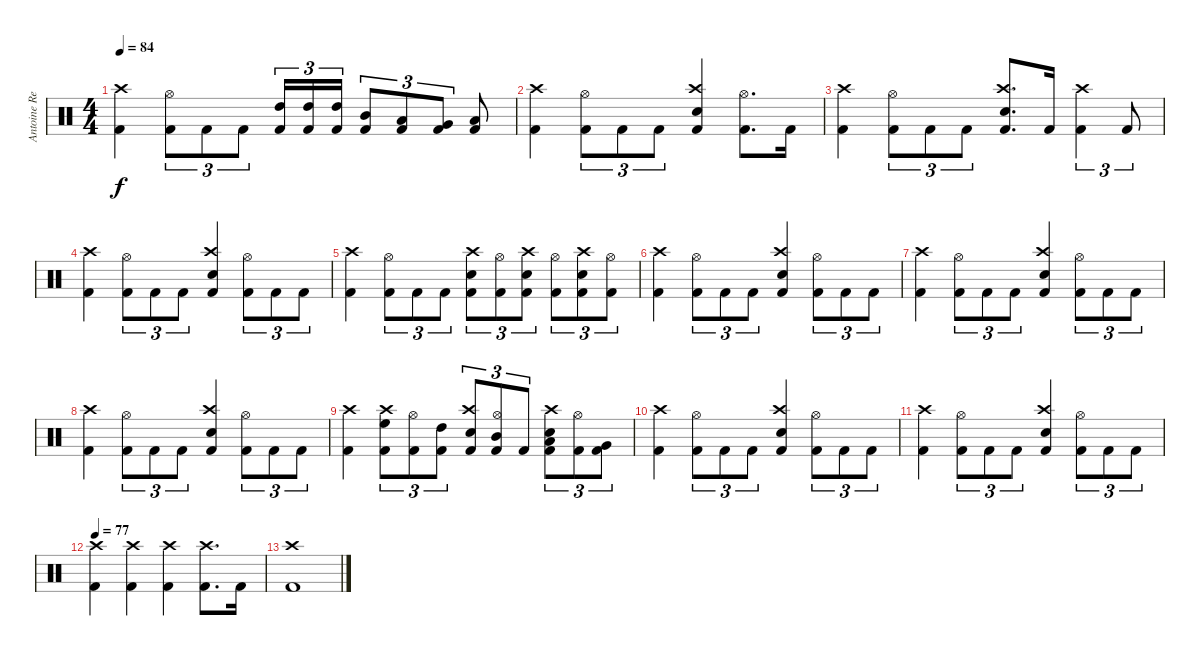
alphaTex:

\track ("Antoine Reuben" "Antoine Re") {instrument percussion}
\staff {score}
\articulation defaults
\ts (4 4)
\tempo 84
\clef neutral
\ks c
("Kick (hit) 2" "Crash high (hit)").4{dy f} ("Kick (hit) 2" "Hi-Hat (open)").8{tu (3 2)} "Kick (hit) 2".8{tu (3 2)} "Kick (hit) 2".8{tu (3 2)} ("Kick (hit) 2" "High Tom (hit)").16{tu (3 2)} ("Kick (hit) 2" "High Tom (hit)").16{tu (3 2)} ("Kick (hit) 2" "High Tom (hit)").16{tu (3 2)} ("Kick (hit) 2" "Mid Tom (hit)").8{tu (3 2)} ("Kick (hit) 2" "Low Tom (hit)").8{tu (3 2)} ("Kick (hit) 2" "Very Low Tom (hit)").8{tu (3 2)} ("Kick (hit) 2" "Low Floor Tom (hit)").8 |
("Kick (hit) 2" "Crash high (hit)").4 ("Kick (hit) 2" "Hi-Hat (open)").8{tu (3 2)} "Kick (hit) 2".8{tu (3 2)} "Kick (hit) 2".8{tu (3 2)} ("Kick (hit) 2" "Crash high (hit)" "Snare (hit) 2").4 ("Kick (hit) 2" "Hi-Hat (open)").8{d} "Kick (hit) 2".16 |
("Kick (hit) 2" "Crash high (hit)").4 ("Kick (hit) 2" "Hi-Hat (open)").8{tu (3 2)} "Kick (hit) 2".8{tu (3 2)} "Kick (hit) 2".8{tu (3 2)} ("Kick (hit) 2" "Crash high (hit)" "Snare (hit) 2").8{d} "Kick (hit) 2".16 ("Kick (hit) 2" "Crash high (hit)").4{tu (3 2)} "Kick (hit) 2".8{tu (3 2)} |
("Kick (hit) 2" "Crash high (hit)").4 ("Kick (hit) 2" "Hi-Hat (open)").8{tu (3 2)} "Kick (hit) 2".8{tu (3 2)} "Kick (hit) 2".8{tu (3 2)} ("Kick (hit) 2" "Crash high (hit)" "Snare (hit) 2").4 ("Kick (hit) 2" "Hi-Hat (open)").8{tu (3 2)} "Kick (hit) 2".8{tu (3 2)} "Kick (hit) 2".8{tu (3 2)} |
("Kick (hit) 2" "Crash high (hit)").4 ("Kick (hit) 2" "Hi-Hat (open)").8{tu (3 2)} "Kick (hit) 2".8{tu (3 2)} "Kick (hit) 2".8{tu (3 2)} ("Kick (hit) 2" "Crash high (hit)" "Snare (hit) 2").8{tu (3 2)} ("Kick (hit) 2" "Hi-Hat (open)").8{tu (3 2)} ("Kick (hit) 2" "Crash high (hit)" "Snare (hit) 2").8{tu (3 2)} ("Kick (hit) 2" "Hi-Hat (open)").8{tu (3 2)} ("Kick (hit) 2" "Crash high (hit)" "Snare (hit) 2").8{tu (3 2)} ("Kick (hit) 2" "Hi-Hat (open)").8{tu (3 2)} |
("Kick (hit) 2" "Crash high (hit)").4 ("Kick (hit) 2" "Hi-Hat (open)").8{tu (3 2)} "Kick (hit) 2".8{tu (3 2)} "Kick (hit) 2".8{tu (3 2)} ("Kick (hit) 2" "Crash high (hit)" "Snare (hit) 2").4 ("Kick (hit) 2" "Hi-Hat (open)").8{tu (3 2)} "Kick (hit) 2".8{tu (3 2)} "Kick (hit) 2".8{tu (3 2)} |
("Kick (hit) 2" "Crash high (hit)").4 ("Kick (hit) 2" "Hi-Hat (open)").8{tu (3 2)} "Kick (hit) 2".8{tu (3 2)} "Kick (hit) 2".8{tu (3 2)} ("Kick (hit) 2" "Crash high (hit)" "Snare (hit) 2").4 ("Kick (hit) 2" "Hi-Hat (open)").8{tu (3 2)} "Kick (hit) 2".8{tu (3 2)} "Kick (hit) 2".8{tu (3 2)} |
("Kick (hit) 2" "Crash high (hit)").4 ("Kick (hit) 2" "Hi-Hat (open)").8{tu (3 2)} "Kick (hit) 2".8{tu (3 2)} "Kick (hit) 2".8{tu (3 2)} ("Kick (hit) 2" "Crash high (hit)" "Snare (hit) 2").4 ("Kick (hit) 2" "Hi-Hat (open)").8{tu (3 2)} "Kick (hit) 2".8{tu (3 2)} "Kick (hit) 2".8{tu (3 2)} |
("Kick (hit) 2" "Crash high (hit)").4 ("Kick (hit) 2" "Crash high (hit)" "High Floor Tom (hit)").8{tu (3 2)} ("Kick (hit) 2" "Hi-Hat (open)").8{tu (3 2)} ("Kick (hit) 2" "High Tom (hit)").8{tu (3 2)} ("Kick (hit) 2" "Crash high (hit)" "Snare (hit) 2").8{tu (3 2)} ("Kick (hit) 2" "Mid Tom (hit)" "Hi-Hat (open)").8{tu (3 2)} "Kick (hit) 2".8{tu (3 2)} ("Kick (hit) 2" "Crash high (hit)" "Snare (hit) 2" "Low Tom (hit)").8{tu (3 2)} ("Kick (hit) 2" "Hi-Hat (open)").8{tu (3 2)} ("Kick (hit) 2" "Very Low Tom (hit)").8{tu (3 2)} |
("Kick (hit) 2" "Crash high (hit)").4 ("Kick (hit) 2" "Hi-Hat (open)").8{tu (3 2)} "Kick (hit) 2".8{tu (3 2)} "Kick (hit) 2".8{tu (3 2)} ("Kick (hit) 2" "Crash high (hit)" "Snare (hit) 2").4 ("Kick (hit) 2" "Hi-Hat (open)").8{tu (3 2)} "Kick (hit) 2".8{tu (3 2)} "Kick (hit) 2".8{tu (3 2)} |
("Kick (hit) 2" "Crash high (hit)").4 ("Kick (hit) 2" "Hi-Hat (open)").8{tu (3 2)} "Kick (hit) 2".8{tu (3 2)} "Kick (hit) 2".8{tu (3 2)} ("Kick (hit) 2" "Crash high (hit)" "Snare (hit) 2").4 ("Kick (hit) 2" "Hi-Hat (open)").8{tu (3 2)} "Kick (hit) 2".8{tu (3 2)} "Kick (hit) 2".8{tu (3 2)} |
\tempo 77
("Kick (hit) 2" "Crash high (hit)").4 ("Kick (hit) 2" "Crash high (hit)").4 ("Kick (hit) 2" "Crash high (hit)").4 ("Kick (hit) 2" "Crash high (hit)").8{d} "Kick (hit) 2".16 |
("Kick (hit) 2" "Crash high (hit)").1
